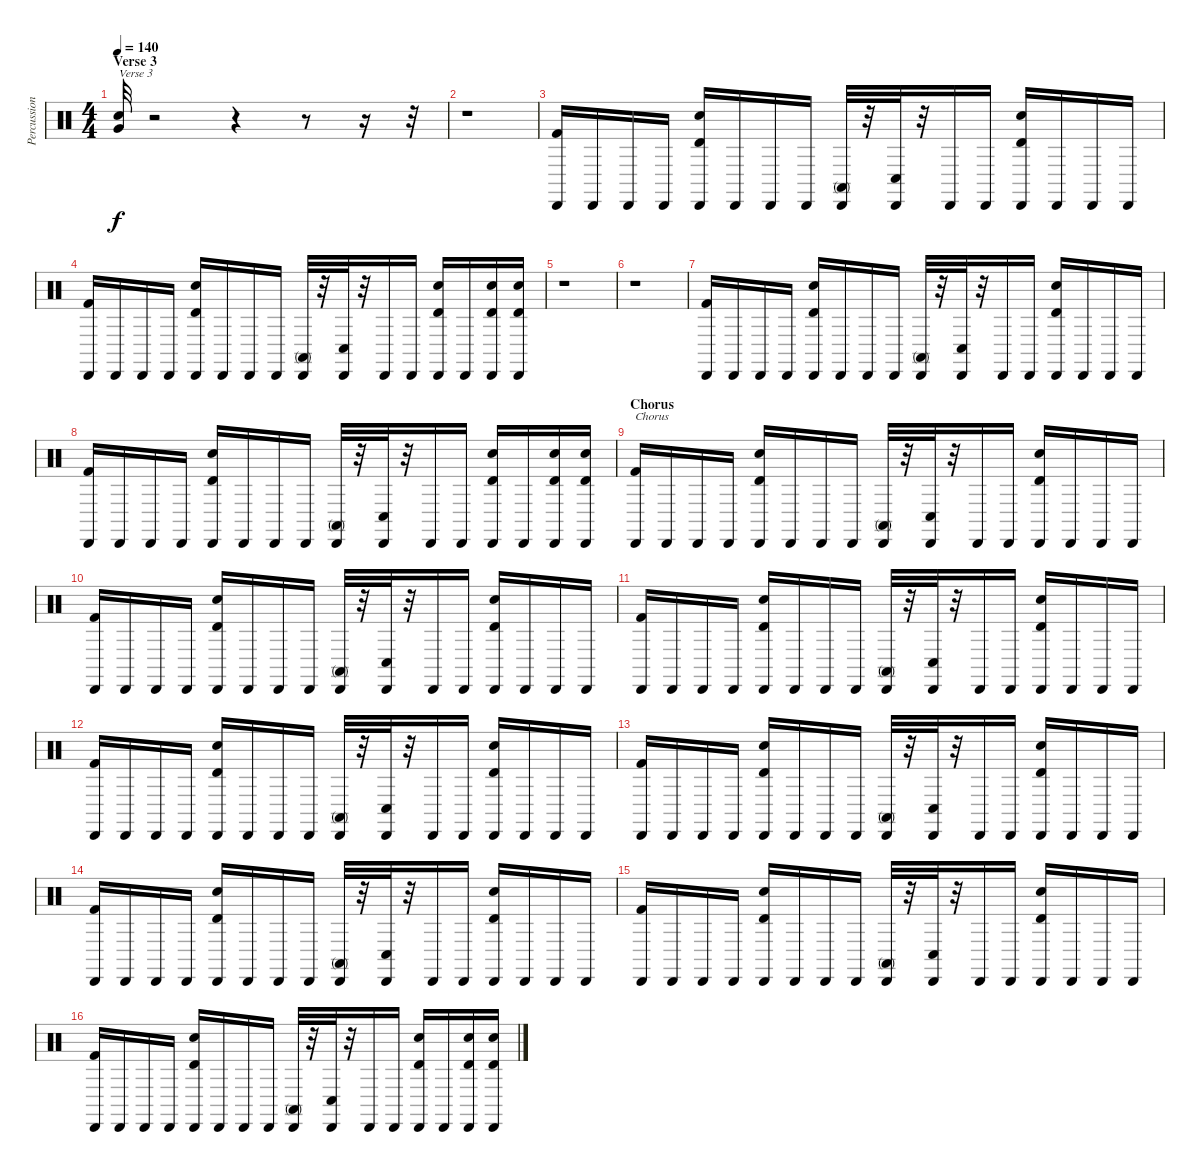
\track ("Percussions" "Percussion") {instrument percussion}
\staff {score}
\articulation defaults
\ts (4 4)
\section ("" "Verse 3")
\tempo 140
\clef neutral
\ks c
("Very Low Tom (hit)" "Hand Clap (hit)").32{txt "Verse 3" dy f} r.2 r.4 r.8 r.16 r.32 |
r.1 |
("Kick (hit) 2" "Cabasa (hit)").16 "Cabasa (hit)".16 "Cabasa (hit)".16 "Cabasa (hit)".16 ("Timbale high (hit)" "Electric Snare (hit)" "Cabasa (hit)").16 "Cabasa (hit)".16 "Cabasa (hit)".16 "Cabasa (hit)".16 ("Conga high (mute)" "Cabasa (hit)").32 r.32 ("Conga low (hit)" "Cabasa (hit)").32 r.32 "Cabasa (hit)".16 "Cabasa (hit)".16 ("Electric Snare (hit)" "Timbale high (hit)" "Cabasa (hit)").16 "Cabasa (hit)".16 "Cabasa (hit)".16 "Cabasa (hit)".16 |
("Kick (hit) 2" "Cabasa (hit)").16 "Cabasa (hit)".16 "Cabasa (hit)".16 "Cabasa (hit)".16 ("Timbale high (hit)" "Electric Snare (hit)" "Cabasa (hit)").16 "Cabasa (hit)".16 "Cabasa (hit)".16 "Cabasa (hit)".16 ("Conga high (mute)" "Cabasa (hit)").32 r.32 ("Conga low (hit)" "Cabasa (hit)").32 r.32 "Cabasa (hit)".16 "Cabasa (hit)".16 ("Electric Snare (hit)" "Timbale high (hit)" "Cabasa (hit)").16 "Cabasa (hit)".16 ("Timbale high (hit)" "Electric Snare (hit)" "Cabasa (hit)").16 ("Timbale high (hit)" "Electric Snare (hit)" "Cabasa (hit)").16 |
r.1 |
r.1 |
("Kick (hit) 2" "Cabasa (hit)").16 "Cabasa (hit)".16 "Cabasa (hit)".16 "Cabasa (hit)".16 ("Timbale high (hit)" "Electric Snare (hit)" "Cabasa (hit)").16 "Cabasa (hit)".16 "Cabasa (hit)".16 "Cabasa (hit)".16 ("Conga high (mute)" "Cabasa (hit)").32 r.32 ("Conga low (hit)" "Cabasa (hit)").32 r.32 "Cabasa (hit)".16 "Cabasa (hit)".16 ("Electric Snare (hit)" "Timbale high (hit)" "Cabasa (hit)").16 "Cabasa (hit)".16 "Cabasa (hit)".16 "Cabasa (hit)".16 |
("Kick (hit) 2" "Cabasa (hit)").16 "Cabasa (hit)".16 "Cabasa (hit)".16 "Cabasa (hit)".16 ("Timbale high (hit)" "Electric Snare (hit)" "Cabasa (hit)").16 "Cabasa (hit)".16 "Cabasa (hit)".16 "Cabasa (hit)".16 ("Conga high (mute)" "Cabasa (hit)").32 r.32 ("Conga low (hit)" "Cabasa (hit)").32 r.32 "Cabasa (hit)".16 "Cabasa (hit)".16 ("Electric Snare (hit)" "Timbale high (hit)" "Cabasa (hit)").16 "Cabasa (hit)".16 ("Timbale high (hit)" "Electric Snare (hit)" "Cabasa (hit)").16 ("Timbale high (hit)" "Electric Snare (hit)" "Cabasa (hit)").16 |
\section ("" "Chorus")
("Kick (hit) 2" "Cabasa (hit)").16{txt "Chorus"} "Cabasa (hit)".16 "Cabasa (hit)".16 "Cabasa (hit)".16 ("Timbale high (hit)" "Electric Snare (hit)" "Cabasa (hit)").16 "Cabasa (hit)".16 "Cabasa (hit)".16 "Cabasa (hit)".16 ("Conga high (mute)" "Cabasa (hit)").32 r.32 ("Conga low (hit)" "Cabasa (hit)").32 r.32 "Cabasa (hit)".16 "Cabasa (hit)".16 ("Electric Snare (hit)" "Timbale high (hit)" "Cabasa (hit)").16 "Cabasa (hit)".16 "Cabasa (hit)".16 "Cabasa (hit)".16 |
("Kick (hit) 2" "Cabasa (hit)").16 "Cabasa (hit)".16 "Cabasa (hit)".16 "Cabasa (hit)".16 ("Timbale high (hit)" "Electric Snare (hit)" "Cabasa (hit)").16 "Cabasa (hit)".16 "Cabasa (hit)".16 "Cabasa (hit)".16 ("Conga high (mute)" "Cabasa (hit)").32 r.32 ("Conga low (hit)" "Cabasa (hit)").32 r.32 "Cabasa (hit)".16 "Cabasa (hit)".16 ("Electric Snare (hit)" "Timbale high (hit)" "Cabasa (hit)").16 "Cabasa (hit)".16 "Cabasa (hit)".16 "Cabasa (hit)".16 |
("Kick (hit) 2" "Cabasa (hit)").16 "Cabasa (hit)".16 "Cabasa (hit)".16 "Cabasa (hit)".16 ("Timbale high (hit)" "Electric Snare (hit)" "Cabasa (hit)").16 "Cabasa (hit)".16 "Cabasa (hit)".16 "Cabasa (hit)".16 ("Conga high (mute)" "Cabasa (hit)").32 r.32 ("Conga low (hit)" "Cabasa (hit)").32 r.32 "Cabasa (hit)".16 "Cabasa (hit)".16 ("Electric Snare (hit)" "Timbale high (hit)" "Cabasa (hit)").16 "Cabasa (hit)".16 "Cabasa (hit)".16 "Cabasa (hit)".16 |
("Kick (hit) 2" "Cabasa (hit)").16 "Cabasa (hit)".16 "Cabasa (hit)".16 "Cabasa (hit)".16 ("Timbale high (hit)" "Electric Snare (hit)" "Cabasa (hit)").16 "Cabasa (hit)".16 "Cabasa (hit)".16 "Cabasa (hit)".16 ("Conga high (mute)" "Cabasa (hit)").32 r.32 ("Conga low (hit)" "Cabasa (hit)").32 r.32 "Cabasa (hit)".16 "Cabasa (hit)".16 ("Electric Snare (hit)" "Timbale high (hit)" "Cabasa (hit)").16 "Cabasa (hit)".16 "Cabasa (hit)".16 "Cabasa (hit)".16 |
("Kick (hit) 2" "Cabasa (hit)").16 "Cabasa (hit)".16 "Cabasa (hit)".16 "Cabasa (hit)".16 ("Timbale high (hit)" "Electric Snare (hit)" "Cabasa (hit)").16 "Cabasa (hit)".16 "Cabasa (hit)".16 "Cabasa (hit)".16 ("Conga high (mute)" "Cabasa (hit)").32 r.32 ("Conga low (hit)" "Cabasa (hit)").32 r.32 "Cabasa (hit)".16 "Cabasa (hit)".16 ("Electric Snare (hit)" "Timbale high (hit)" "Cabasa (hit)").16 "Cabasa (hit)".16 "Cabasa (hit)".16 "Cabasa (hit)".16 |
("Kick (hit) 2" "Cabasa (hit)").16 "Cabasa (hit)".16 "Cabasa (hit)".16 "Cabasa (hit)".16 ("Timbale high (hit)" "Electric Snare (hit)" "Cabasa (hit)").16 "Cabasa (hit)".16 "Cabasa (hit)".16 "Cabasa (hit)".16 ("Conga high (mute)" "Cabasa (hit)").32 r.32 ("Conga low (hit)" "Cabasa (hit)").32 r.32 "Cabasa (hit)".16 "Cabasa (hit)".16 ("Electric Snare (hit)" "Timbale high (hit)" "Cabasa (hit)").16 "Cabasa (hit)".16 "Cabasa (hit)".16 "Cabasa (hit)".16 |
("Kick (hit) 2" "Cabasa (hit)").16 "Cabasa (hit)".16 "Cabasa (hit)".16 "Cabasa (hit)".16 ("Timbale high (hit)" "Electric Snare (hit)" "Cabasa (hit)").16 "Cabasa (hit)".16 "Cabasa (hit)".16 "Cabasa (hit)".16 ("Conga high (mute)" "Cabasa (hit)").32 r.32 ("Conga low (hit)" "Cabasa (hit)").32 r.32 "Cabasa (hit)".16 "Cabasa (hit)".16 ("Electric Snare (hit)" "Timbale high (hit)" "Cabasa (hit)").16 "Cabasa (hit)".16 "Cabasa (hit)".16 "Cabasa (hit)".16 |
("Kick (hit) 2" "Cabasa (hit)").16 "Cabasa (hit)".16 "Cabasa (hit)".16 "Cabasa (hit)".16 ("Timbale high (hit)" "Electric Snare (hit)" "Cabasa (hit)").16 "Cabasa (hit)".16 "Cabasa (hit)".16 "Cabasa (hit)".16 ("Conga high (mute)" "Cabasa (hit)").32 r.32 ("Conga low (hit)" "Cabasa (hit)").32 r.32 "Cabasa (hit)".16 "Cabasa (hit)".16 ("Electric Snare (hit)" "Timbale high (hit)" "Cabasa (hit)").16 "Cabasa (hit)".16 ("Timbale high (hit)" "Electric Snare (hit)" "Cabasa (hit)").16 ("Timbale high (hit)" "Electric Snare (hit)" "Cabasa (hit)").16
